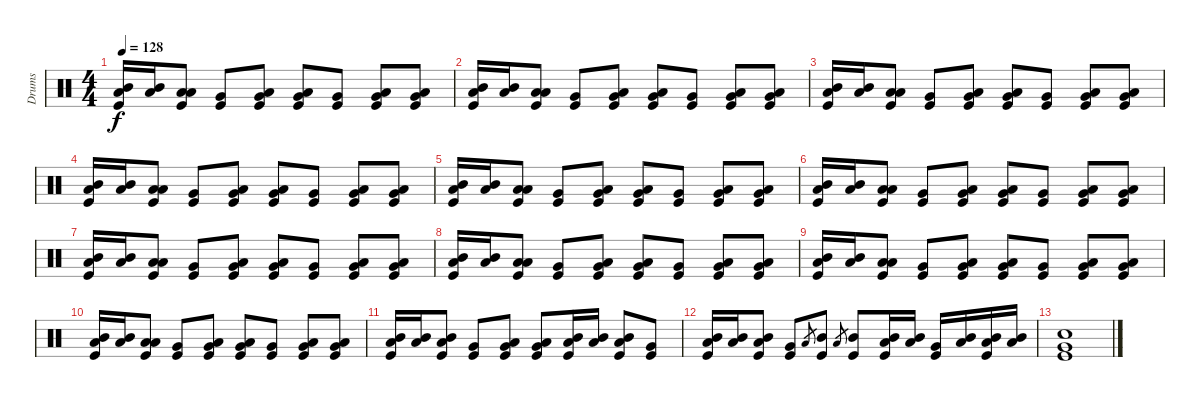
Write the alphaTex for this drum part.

\track ("Drums" "Drums") {instrument percussion}
\staff {score}
\articulation defaults
\ts (4 4)
\tempo 128
\clef neutral
\ks c
("Mid Tom (hit)" "Low Tom (hit)" "Kick (hit)").16{dy f} ("Mid Tom (hit)" "Low Tom (hit)").16 ("Low Tom (hit)" "Low Tom (hit)" "Kick (hit)").8 ("Very Low Tom (hit)" "Kick (hit)").8 ("Low Tom (hit)" "Very Low Tom (hit)" "Kick (hit)").8 ("Low Tom (hit)" "Very Low Tom (hit)" "Kick (hit)").8 ("Very Low Tom (hit)" "Kick (hit)").8 ("Low Tom (hit)" "Very Low Tom (hit)" "Kick (hit)").8 ("Low Tom (hit)" "Very Low Tom (hit)" "Kick (hit)").8 |
("Mid Tom (hit)" "Low Tom (hit)" "Kick (hit)").16 ("Mid Tom (hit)" "Low Tom (hit)").16 ("Low Tom (hit)" "Low Tom (hit)" "Kick (hit)").8 ("Very Low Tom (hit)" "Kick (hit)").8 ("Low Tom (hit)" "Very Low Tom (hit)" "Kick (hit)").8 ("Low Tom (hit)" "Very Low Tom (hit)" "Kick (hit)").8 ("Very Low Tom (hit)" "Kick (hit)").8 ("Low Tom (hit)" "Very Low Tom (hit)" "Kick (hit)").8 ("Low Tom (hit)" "Very Low Tom (hit)" "Kick (hit)").8 |
("Mid Tom (hit)" "Low Tom (hit)" "Kick (hit)").16 ("Mid Tom (hit)" "Low Tom (hit)").16 ("Low Tom (hit)" "Low Tom (hit)" "Kick (hit)").8 ("Very Low Tom (hit)" "Kick (hit)").8 ("Low Tom (hit)" "Very Low Tom (hit)" "Kick (hit)").8 ("Low Tom (hit)" "Very Low Tom (hit)" "Kick (hit)").8 ("Very Low Tom (hit)" "Kick (hit)").8 ("Low Tom (hit)" "Very Low Tom (hit)" "Kick (hit)").8 ("Low Tom (hit)" "Very Low Tom (hit)" "Kick (hit)").8 |
("Mid Tom (hit)" "Low Tom (hit)" "Kick (hit)").16 ("Mid Tom (hit)" "Low Tom (hit)").16 ("Low Tom (hit)" "Low Tom (hit)" "Kick (hit)").8 ("Very Low Tom (hit)" "Kick (hit)").8 ("Low Tom (hit)" "Very Low Tom (hit)" "Kick (hit)").8 ("Low Tom (hit)" "Very Low Tom (hit)" "Kick (hit)").8 ("Very Low Tom (hit)" "Kick (hit)").8 ("Low Tom (hit)" "Very Low Tom (hit)" "Kick (hit)").8 ("Low Tom (hit)" "Very Low Tom (hit)" "Kick (hit)").8 |
("Mid Tom (hit)" "Low Tom (hit)" "Kick (hit)").16 ("Mid Tom (hit)" "Low Tom (hit)").16 ("Low Tom (hit)" "Low Tom (hit)" "Kick (hit)").8 ("Very Low Tom (hit)" "Kick (hit)").8 ("Low Tom (hit)" "Very Low Tom (hit)" "Kick (hit)").8 ("Low Tom (hit)" "Very Low Tom (hit)" "Kick (hit)").8 ("Very Low Tom (hit)" "Kick (hit)").8 ("Low Tom (hit)" "Very Low Tom (hit)" "Kick (hit)").8 ("Low Tom (hit)" "Very Low Tom (hit)" "Kick (hit)").8 |
("Mid Tom (hit)" "Low Tom (hit)" "Kick (hit)").16 ("Mid Tom (hit)" "Low Tom (hit)").16 ("Low Tom (hit)" "Low Tom (hit)" "Kick (hit)").8 ("Very Low Tom (hit)" "Kick (hit)").8 ("Low Tom (hit)" "Very Low Tom (hit)" "Kick (hit)").8 ("Low Tom (hit)" "Very Low Tom (hit)" "Kick (hit)").8 ("Very Low Tom (hit)" "Kick (hit)").8 ("Low Tom (hit)" "Very Low Tom (hit)" "Kick (hit)").8 ("Low Tom (hit)" "Very Low Tom (hit)" "Kick (hit)").8 |
("Mid Tom (hit)" "Low Tom (hit)" "Kick (hit)").16 ("Mid Tom (hit)" "Low Tom (hit)").16 ("Low Tom (hit)" "Low Tom (hit)" "Kick (hit)").8 ("Very Low Tom (hit)" "Kick (hit)").8 ("Low Tom (hit)" "Very Low Tom (hit)" "Kick (hit)").8 ("Low Tom (hit)" "Very Low Tom (hit)" "Kick (hit)").8 ("Very Low Tom (hit)" "Kick (hit)").8 ("Low Tom (hit)" "Very Low Tom (hit)" "Kick (hit)").8 ("Low Tom (hit)" "Very Low Tom (hit)" "Kick (hit)").8 |
("Mid Tom (hit)" "Low Tom (hit)" "Kick (hit)").16 ("Mid Tom (hit)" "Low Tom (hit)").16 ("Low Tom (hit)" "Low Tom (hit)" "Kick (hit)").8 ("Very Low Tom (hit)" "Kick (hit)").8 ("Low Tom (hit)" "Very Low Tom (hit)" "Kick (hit)").8 ("Low Tom (hit)" "Very Low Tom (hit)" "Kick (hit)").8 ("Very Low Tom (hit)" "Kick (hit)").8 ("Low Tom (hit)" "Very Low Tom (hit)" "Kick (hit)").8 ("Low Tom (hit)" "Very Low Tom (hit)" "Kick (hit)").8 |
("Mid Tom (hit)" "Low Tom (hit)" "Kick (hit)").16 ("Mid Tom (hit)" "Low Tom (hit)").16 ("Low Tom (hit)" "Low Tom (hit)" "Kick (hit)").8 ("Very Low Tom (hit)" "Kick (hit)").8 ("Low Tom (hit)" "Very Low Tom (hit)" "Kick (hit)").8 ("Low Tom (hit)" "Very Low Tom (hit)" "Kick (hit)").8 ("Very Low Tom (hit)" "Kick (hit)").8 ("Low Tom (hit)" "Very Low Tom (hit)" "Kick (hit)").8 ("Low Tom (hit)" "Very Low Tom (hit)" "Kick (hit)").8 |
("Mid Tom (hit)" "Low Tom (hit)" "Kick (hit)").16 ("Mid Tom (hit)" "Low Tom (hit)").16 ("Low Tom (hit)" "Low Tom (hit)" "Kick (hit)").8 ("Very Low Tom (hit)" "Kick (hit)").8 ("Low Tom (hit)" "Very Low Tom (hit)" "Kick (hit)").8 ("Low Tom (hit)" "Very Low Tom (hit)" "Kick (hit)").8 ("Very Low Tom (hit)" "Kick (hit)").8 ("Low Tom (hit)" "Very Low Tom (hit)" "Kick (hit)").8 ("Low Tom (hit)" "Very Low Tom (hit)" "Kick (hit)").8 |
("Mid Tom (hit)" "Low Tom (hit)" "Kick (hit)").16 ("Mid Tom (hit)" "Low Tom (hit)").16 ("Mid Tom (hit)" "Low Tom (hit)" "Kick (hit)").8 ("Very Low Tom (hit)" "Kick (hit)").8 ("Low Tom (hit)" "Very Low Tom (hit)" "Kick (hit)").8 ("Low Tom (hit)" "Very Low Tom (hit)" "Kick (hit)").8 ("Mid Tom (hit)" "Low Tom (hit)" "Kick (hit)").16 ("Mid Tom (hit)" "Low Tom (hit)").16 ("Mid Tom (hit)" "Low Tom (hit)" "Kick (hit)").8 ("Very Low Tom (hit)" "Kick (hit)").8 |
("Mid Tom (hit)" "Low Tom (hit)" "Kick (hit)").16 ("Mid Tom (hit)" "Low Tom (hit)").16 ("Mid Tom (hit)" "Low Tom (hit)" "Kick (hit)").8 ("Very Low Tom (hit)" "Kick (hit)").8 "Low Tom (hit)".8{gr} ("Mid Tom (hit)" "Kick (hit)").8 "Low Tom (hit)".8{gr} ("Mid Tom (hit)" "Kick (hit)").8 ("Mid Tom (hit)" "Low Tom (hit)" "Kick (hit)").16 ("Mid Tom (hit)" "Low Tom (hit)").16 ("Very Low Tom (hit)" "Kick (hit)").16 ("Mid Tom (hit)" "Low Tom (hit)").16 ("Mid Tom (hit)" "Low Tom (hit)" "Kick (hit)").16 ("Mid Tom (hit)" "Low Tom (hit)").16 |
\section ("" "")
("Snare (hit) 2" "Very Low Tom (hit)" "Kick (hit)").1
